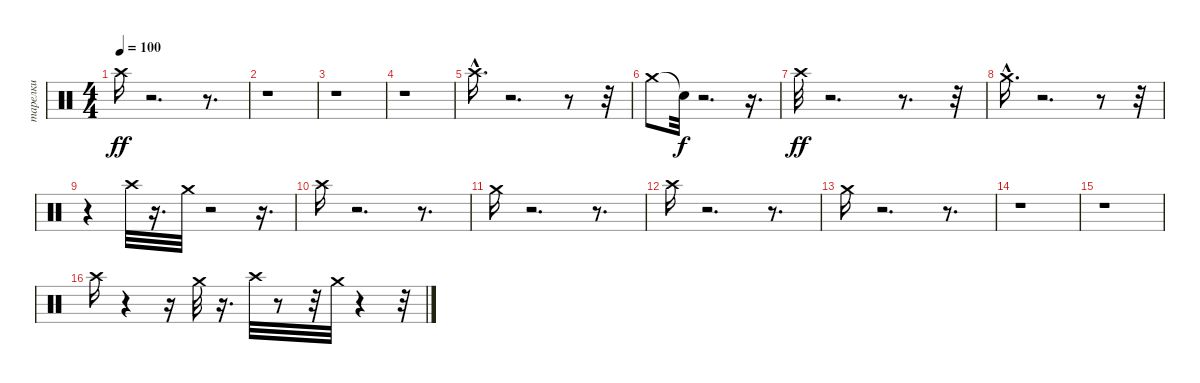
\track ("тарелки" "тарелки") {instrument percussion}
\staff {score}
\articulation defaults
\ts (4 4)
\tempo 100
\clef neutral
\ks c "Crash high (hit)".16{dy ff}
r.2{d} r.8{d} |
r.1 |
r.1 |
r.1 |
"Crash high (hit)"{hac}.16{d} r.2{d} r.8 r.32 |
"Crash medium (hit)".8 "Snare (hit)"{t}.32{dy f} r.2{d} r.16{d} |
"Crash high (hit)".32{dy ff} r.2{d} r.8{d} r.32 |
"Crash medium (hit)"{hac}.16{d} r.2{d} r.8 r.32 |
r.4 "Crash high (hit)".32 r.16{d} "Crash medium (hit)".32 r.2 r.16{d} |
"Crash high (hit)".16 r.2{d} r.8{d} |
"Crash medium (hit)".16 r.2{d} r.8{d} |
"Crash high (hit)".16 r.2{d} r.8{d} |
"Crash medium (hit)".16 r.2{d} r.8{d} |
r.1 |
r.1 |
"Crash high (hit)".16 r.4 r.16 "Crash medium (hit)".32 r.16{d} "Crash high (hit)".32 r.8 r.32 "Crash medium (hit)".32 r.4 r.32
